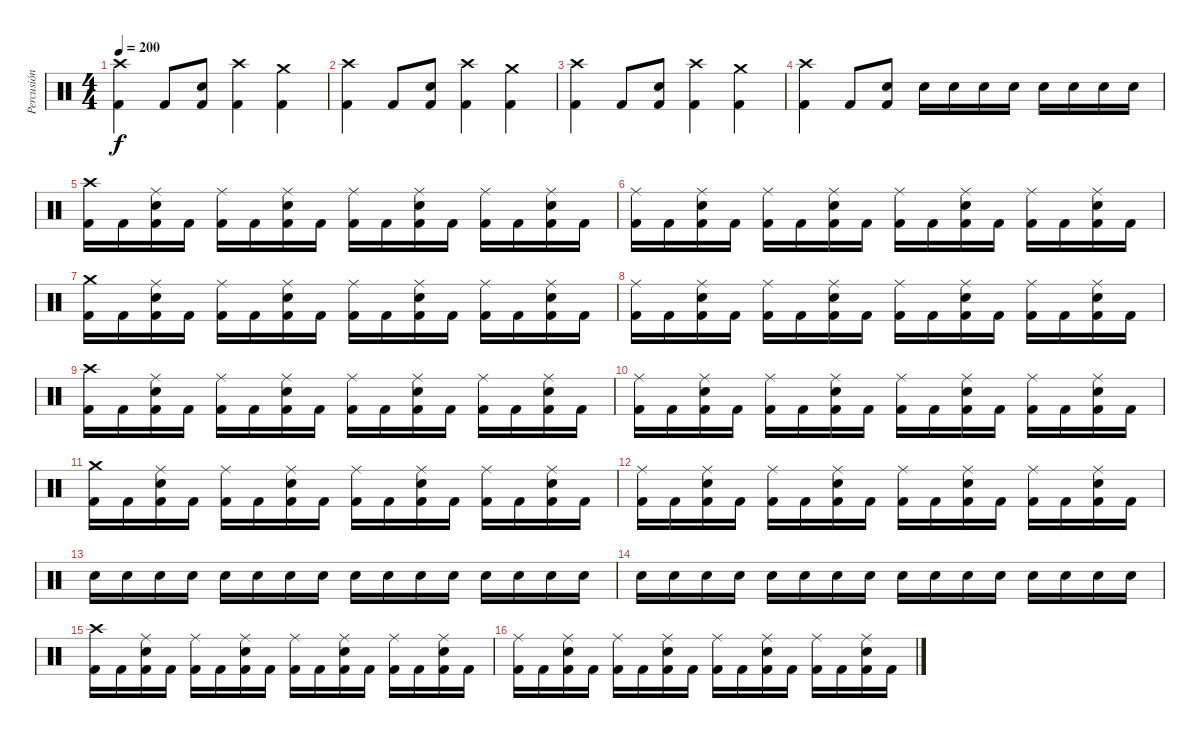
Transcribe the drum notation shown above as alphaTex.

\track ("Percusión" "Percusión") {instrument percussion}
\staff {score}
\articulation defaults
\ts (4 4)
\tempo 200
\clef neutral
\ks c
("Crash high (hit)" "Kick (hit) 2").4{dy f} "Kick (hit) 2".8 ("Kick (hit) 2" "Snare (hit) 2").8 ("Crash high (hit)" "Kick (hit) 2").4 ("Crash medium (hit)" "Kick (hit) 2").4 |
("Crash high (hit)" "Kick (hit) 2").4 "Kick (hit) 2".8 ("Kick (hit) 2" "Snare (hit) 2").8 ("Crash high (hit)" "Kick (hit) 2").4 ("Crash medium (hit)" "Kick (hit) 2").4 |
("Crash high (hit)" "Kick (hit) 2").4 "Kick (hit) 2".8 ("Kick (hit) 2" "Snare (hit) 2").8 ("Crash high (hit)" "Kick (hit) 2").4 ("Crash medium (hit)" "Kick (hit) 2").4 |
("Crash high (hit)" "Kick (hit) 2").4 "Kick (hit) 2".8 ("Kick (hit) 2" "Snare (hit) 2").8 "Snare (hit) 2".16 "Snare (hit) 2".16 "Snare (hit) 2".16 "Snare (hit) 2".16 "Snare (hit) 2".16 "Snare (hit) 2".16 "Snare (hit) 2".16 "Snare (hit) 2".16 |
("Kick (hit) 2" "Crash high (hit)").16 "Kick (hit) 2".16 ("Kick (hit) 2" "Ride (middle)" "Snare (hit) 2").16 "Kick (hit) 2".16 ("Kick (hit) 2" "Ride (middle)").16 "Kick (hit) 2".16 ("Kick (hit) 2" "Ride (middle)" "Snare (hit) 2").16 "Kick (hit) 2".16 ("Kick (hit) 2" "Ride (middle)").16 "Kick (hit) 2".16 ("Kick (hit) 2" "Ride (middle)" "Snare (hit) 2").16 "Kick (hit) 2".16 ("Kick (hit) 2" "Ride (middle)").16 "Kick (hit) 2".16 ("Kick (hit) 2" "Ride (middle)" "Snare (hit) 2").16 "Kick (hit) 2".16 |
("Kick (hit) 2" "Ride (middle)").16 "Kick (hit) 2".16 ("Kick (hit) 2" "Ride (middle)" "Snare (hit) 2").16 "Kick (hit) 2".16 ("Kick (hit) 2" "Ride (middle)").16 "Kick (hit) 2".16 ("Kick (hit) 2" "Ride (middle)" "Snare (hit) 2").16 "Kick (hit) 2".16 ("Kick (hit) 2" "Ride (middle)").16 "Kick (hit) 2".16 ("Kick (hit) 2" "Ride (middle)" "Snare (hit) 2").16 "Kick (hit) 2".16 ("Kick (hit) 2" "Ride (middle)").16 "Kick (hit) 2".16 ("Kick (hit) 2" "Ride (middle)" "Snare (hit) 2").16 "Kick (hit) 2".16 |
("Kick (hit) 2" "Crash medium (hit)").16 "Kick (hit) 2".16 ("Kick (hit) 2" "Ride (middle)" "Snare (hit) 2").16 "Kick (hit) 2".16 ("Kick (hit) 2" "Ride (middle)").16 "Kick (hit) 2".16 ("Kick (hit) 2" "Ride (middle)" "Snare (hit) 2").16 "Kick (hit) 2".16 ("Kick (hit) 2" "Ride (middle)").16 "Kick (hit) 2".16 ("Kick (hit) 2" "Ride (middle)" "Snare (hit) 2").16 "Kick (hit) 2".16 ("Kick (hit) 2" "Ride (middle)").16 "Kick (hit) 2".16 ("Kick (hit) 2" "Ride (middle)" "Snare (hit) 2").16 "Kick (hit) 2".16 |
("Kick (hit) 2" "Ride (middle)").16 "Kick (hit) 2".16 ("Kick (hit) 2" "Ride (middle)" "Snare (hit) 2").16 "Kick (hit) 2".16 ("Kick (hit) 2" "Ride (middle)").16 "Kick (hit) 2".16 ("Kick (hit) 2" "Ride (middle)" "Snare (hit) 2").16 "Kick (hit) 2".16 ("Kick (hit) 2" "Ride (middle)").16 "Kick (hit) 2".16 ("Kick (hit) 2" "Ride (middle)" "Snare (hit) 2").16 "Kick (hit) 2".16 ("Kick (hit) 2" "Ride (middle)").16 "Kick (hit) 2".16 ("Kick (hit) 2" "Ride (middle)" "Snare (hit) 2").16 "Kick (hit) 2".16 |
("Kick (hit) 2" "Crash high (hit)").16 "Kick (hit) 2".16 ("Kick (hit) 2" "Ride (middle)" "Snare (hit) 2").16 "Kick (hit) 2".16 ("Kick (hit) 2" "Ride (middle)").16 "Kick (hit) 2".16 ("Kick (hit) 2" "Ride (middle)" "Snare (hit) 2").16 "Kick (hit) 2".16 ("Kick (hit) 2" "Ride (middle)").16 "Kick (hit) 2".16 ("Kick (hit) 2" "Ride (middle)" "Snare (hit) 2").16 "Kick (hit) 2".16 ("Kick (hit) 2" "Ride (middle)").16 "Kick (hit) 2".16 ("Kick (hit) 2" "Ride (middle)" "Snare (hit) 2").16 "Kick (hit) 2".16 |
("Kick (hit) 2" "Ride (middle)").16 "Kick (hit) 2".16 ("Kick (hit) 2" "Ride (middle)" "Snare (hit) 2").16 "Kick (hit) 2".16 ("Kick (hit) 2" "Ride (middle)").16 "Kick (hit) 2".16 ("Kick (hit) 2" "Ride (middle)" "Snare (hit) 2").16 "Kick (hit) 2".16 ("Kick (hit) 2" "Ride (middle)").16 "Kick (hit) 2".16 ("Kick (hit) 2" "Ride (middle)" "Snare (hit) 2").16 "Kick (hit) 2".16 ("Kick (hit) 2" "Ride (middle)").16 "Kick (hit) 2".16 ("Kick (hit) 2" "Ride (middle)" "Snare (hit) 2").16 "Kick (hit) 2".16 |
("Kick (hit) 2" "Crash medium (hit)").16 "Kick (hit) 2".16 ("Kick (hit) 2" "Ride (middle)" "Snare (hit) 2").16 "Kick (hit) 2".16 ("Kick (hit) 2" "Ride (middle)").16 "Kick (hit) 2".16 ("Kick (hit) 2" "Ride (middle)" "Snare (hit) 2").16 "Kick (hit) 2".16 ("Kick (hit) 2" "Ride (middle)").16 "Kick (hit) 2".16 ("Kick (hit) 2" "Ride (middle)" "Snare (hit) 2").16 "Kick (hit) 2".16 ("Kick (hit) 2" "Ride (middle)").16 "Kick (hit) 2".16 ("Kick (hit) 2" "Ride (middle)" "Snare (hit) 2").16 "Kick (hit) 2".16 |
("Kick (hit) 2" "Ride (middle)").16 "Kick (hit) 2".16 ("Kick (hit) 2" "Ride (middle)" "Snare (hit) 2").16 "Kick (hit) 2".16 ("Kick (hit) 2" "Ride (middle)").16 "Kick (hit) 2".16 ("Kick (hit) 2" "Ride (middle)" "Snare (hit) 2").16 "Kick (hit) 2".16 ("Kick (hit) 2" "Ride (middle)").16 "Kick (hit) 2".16 ("Kick (hit) 2" "Ride (middle)" "Snare (hit) 2").16 "Kick (hit) 2".16 ("Kick (hit) 2" "Ride (middle)").16 "Kick (hit) 2".16 ("Kick (hit) 2" "Ride (middle)" "Snare (hit) 2").16 "Kick (hit) 2".16 |
"Snare (hit) 2".16 "Snare (hit) 2".16 "Snare (hit) 2".16 "Snare (hit) 2".16 "Snare (hit) 2".16 "Snare (hit) 2".16 "Snare (hit) 2".16 "Snare (hit) 2".16 "Snare (hit) 2".16 "Snare (hit) 2".16 "Snare (hit) 2".16 "Snare (hit) 2".16 "Snare (hit) 2".16 "Snare (hit) 2".16 "Snare (hit) 2".16 "Snare (hit) 2".16 |
"Snare (hit) 2".16 "Snare (hit) 2".16 "Snare (hit) 2".16 "Snare (hit) 2".16 "Snare (hit) 2".16 "Snare (hit) 2".16 "Snare (hit) 2".16 "Snare (hit) 2".16 "Snare (hit) 2".16 "Snare (hit) 2".16 "Snare (hit) 2".16 "Snare (hit) 2".16 "Snare (hit) 2".16 "Snare (hit) 2".16 "Snare (hit) 2".16 "Snare (hit) 2".16 |
("Kick (hit) 2" "Crash high (hit)").16 "Kick (hit) 2".16 ("Kick (hit) 2" "Ride (middle)" "Snare (hit) 2").16 "Kick (hit) 2".16 ("Kick (hit) 2" "Ride (middle)").16 "Kick (hit) 2".16 ("Kick (hit) 2" "Ride (middle)" "Snare (hit) 2").16 "Kick (hit) 2".16 ("Kick (hit) 2" "Ride (middle)").16 "Kick (hit) 2".16 ("Kick (hit) 2" "Ride (middle)" "Snare (hit) 2").16 "Kick (hit) 2".16 ("Kick (hit) 2" "Ride (middle)").16 "Kick (hit) 2".16 ("Kick (hit) 2" "Ride (middle)" "Snare (hit) 2").16 "Kick (hit) 2".16 |
("Kick (hit) 2" "Ride (middle)").16 "Kick (hit) 2".16 ("Kick (hit) 2" "Ride (middle)" "Snare (hit) 2").16 "Kick (hit) 2".16 ("Kick (hit) 2" "Ride (middle)").16 "Kick (hit) 2".16 ("Kick (hit) 2" "Ride (middle)" "Snare (hit) 2").16 "Kick (hit) 2".16 ("Kick (hit) 2" "Ride (middle)").16 "Kick (hit) 2".16 ("Kick (hit) 2" "Ride (middle)" "Snare (hit) 2").16 "Kick (hit) 2".16 ("Kick (hit) 2" "Ride (middle)").16 "Kick (hit) 2".16 ("Kick (hit) 2" "Ride (middle)" "Snare (hit) 2").16 "Kick (hit) 2".16
